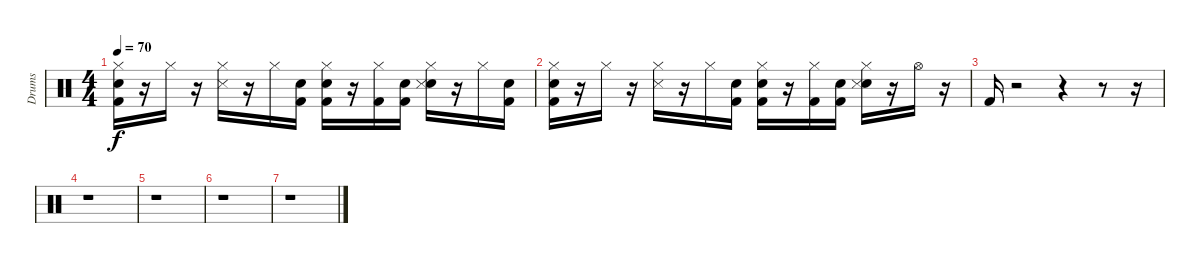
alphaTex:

\track ("Drums" "Drums") {instrument percussion}
\staff {score}
\articulation defaults
\ts (4 4)
\tempo 70
\clef neutral
\ks c
("Snare (hit)" "Kick (hit) 2" "Hi-Hat (closed)").16{dy f} r.16 "Hi-Hat (closed)".16 r.16 ("Snare (side stick) 3" "Hi-Hat (closed)").16 r.16 "Hi-Hat (closed)".16 ("Snare (hit)" "Kick (hit) 2").16 ("Snare (hit)" "Kick (hit) 2" "Hi-Hat (closed)").16 r.16 ("Kick (hit) 2" "Hi-Hat (closed)").16 ("Snare (hit)" "Kick (hit) 2").16 ("Snare (hit)" "Snare (side stick) 3" "Hi-Hat (closed)").16 r.16 "Hi-Hat (closed)".16 ("Snare (hit)" "Kick (hit) 2").16 |
("Snare (hit)" "Kick (hit) 2" "Hi-Hat (closed)").16 r.16 "Hi-Hat (closed)".16 r.16 ("Snare (side stick) 3" "Hi-Hat (closed)").16 r.16 "Hi-Hat (closed)".16 ("Snare (hit)" "Kick (hit) 2").16 ("Snare (hit)" "Kick (hit) 2" "Hi-Hat (closed)").16 r.16 ("Kick (hit) 2" "Hi-Hat (closed)").16 ("Snare (hit)" "Kick (hit) 2").16 ("Snare (hit)" "Snare (side stick) 3" "Hi-Hat (closed)").16 r.16 "Hi-Hat (open)".16 r.16 |
"Kick (hit) 2".16 r.2 r.4 r.8 r.16 |
r.1 |
r.1 |
r.1 |
r.1
